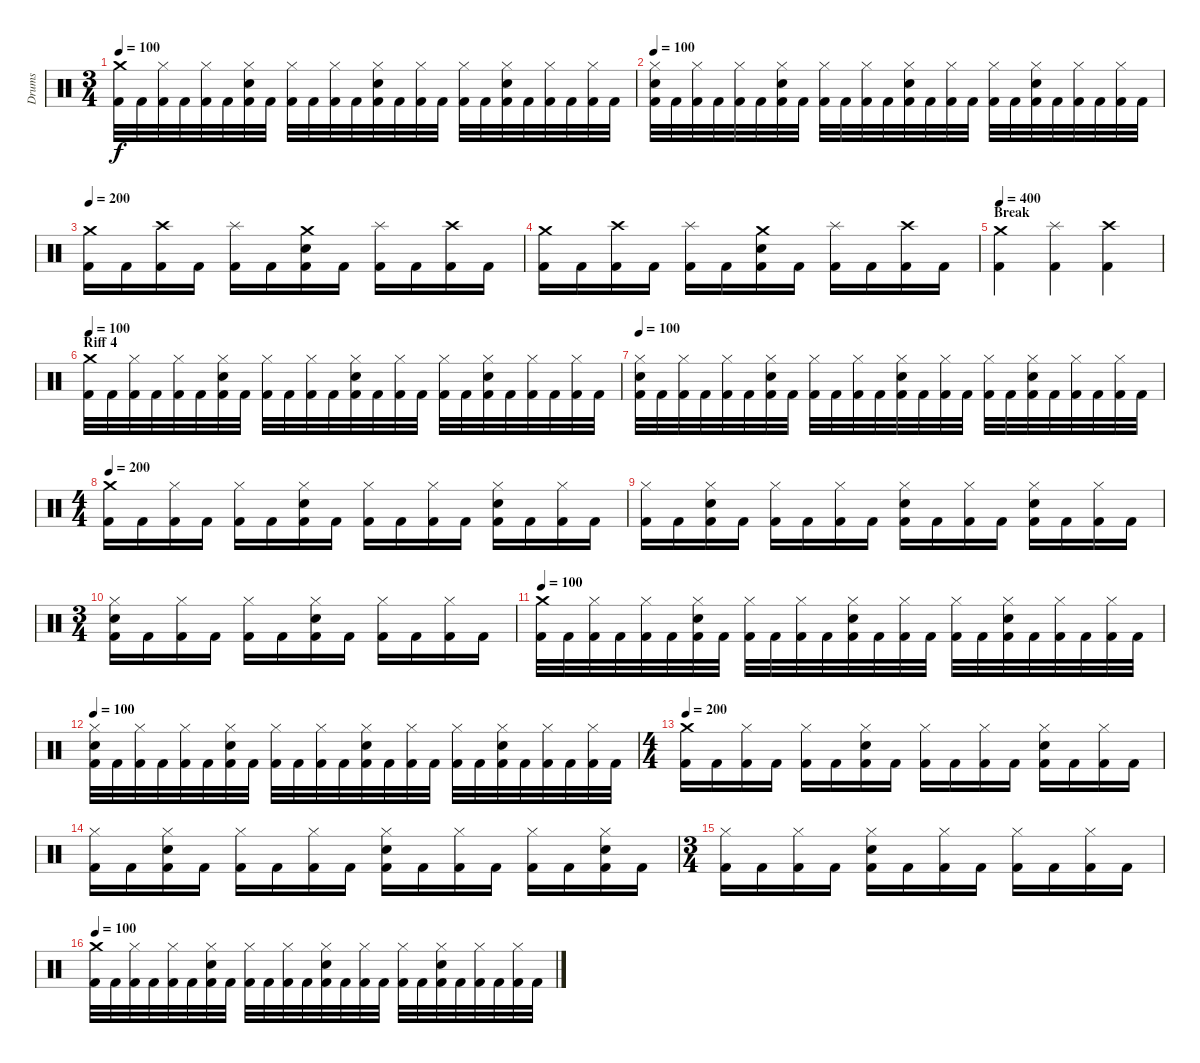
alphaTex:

\track ("Drums" "Drums") {instrument percussion}
\staff {score}
\articulation defaults
\ts (3 4)
\tempo 100
\clef neutral
\ks c
("Crash medium (hit)" "Kick (hit) 2").32{dy f} "Kick (hit) 2".32 ("Hi-Hat (closed)" "Kick (hit) 2").32 "Kick (hit) 2".32 ("Hi-Hat (closed)" "Kick (hit) 2").32 "Kick (hit) 2".32 ("Hi-Hat (closed)" "Electric Snare (hit)" "Kick (hit) 2").32 "Kick (hit) 2".32 ("Hi-Hat (closed)" "Kick (hit) 2").32 "Kick (hit) 2".32 ("Hi-Hat (closed)" "Kick (hit) 2").32 "Kick (hit) 2".32 ("Hi-Hat (closed)" "Electric Snare (hit)" "Kick (hit) 2").32 "Kick (hit) 2".32 ("Hi-Hat (closed)" "Kick (hit) 2").32 "Kick (hit) 2".32 ("Hi-Hat (closed)" "Kick (hit) 2").32 "Kick (hit) 2".32 ("Hi-Hat (closed)" "Electric Snare (hit)" "Kick (hit) 2").32 "Kick (hit) 2".32 ("Hi-Hat (closed)" "Kick (hit) 2").32 "Kick (hit) 2".32 ("Hi-Hat (closed)" "Kick (hit) 2").32 "Kick (hit) 2".32 |
\tempo 100
("Hi-Hat (closed)" "Electric Snare (hit)" "Kick (hit) 2").32 "Kick (hit) 2".32 ("Hi-Hat (closed)" "Kick (hit) 2").32 "Kick (hit) 2".32 ("Hi-Hat (closed)" "Kick (hit) 2").32 "Kick (hit) 2".32 ("Hi-Hat (closed)" "Electric Snare (hit)" "Kick (hit) 2").32 "Kick (hit) 2".32 ("Hi-Hat (closed)" "Kick (hit) 2").32 "Kick (hit) 2".32 ("Hi-Hat (closed)" "Kick (hit) 2").32 "Kick (hit) 2".32 ("Hi-Hat (closed)" "Electric Snare (hit)" "Kick (hit) 2").32 "Kick (hit) 2".32 ("Hi-Hat (closed)" "Kick (hit) 2").32 "Kick (hit) 2".32 ("Hi-Hat (closed)" "Kick (hit) 2").32 "Kick (hit) 2".32 ("Hi-Hat (closed)" "Electric Snare (hit)" "Kick (hit) 2").32 "Kick (hit) 2".32 ("Hi-Hat (closed)" "Kick (hit) 2").32 "Kick (hit) 2".32 ("Hi-Hat (closed)" "Kick (hit) 2").32 "Kick (hit) 2".32 |
\tempo 200
("Crash medium (hit)" "Kick (hit) 2").16 "Kick (hit) 2".16 ("Crash high (hit)" "Kick (hit) 2").16 "Kick (hit) 2".16 ("Splash (hit)" "Kick (hit) 2").16 "Kick (hit) 2".16 ("Crash medium (hit)" "Electric Snare (hit)" "Kick (hit) 2").16 "Kick (hit) 2".16 ("Splash (hit)" "Kick (hit) 2").16 "Kick (hit) 2".16 ("Crash high (hit)" "Kick (hit) 2").16 "Kick (hit) 2".16 |
("Crash medium (hit)" "Kick (hit) 2").16 "Kick (hit) 2".16 ("Crash high (hit)" "Kick (hit) 2").16 "Kick (hit) 2".16 ("Splash (hit)" "Kick (hit) 2").16 "Kick (hit) 2".16 ("Crash medium (hit)" "Electric Snare (hit)" "Kick (hit) 2").16 "Kick (hit) 2".16 ("Splash (hit)" "Kick (hit) 2").16 "Kick (hit) 2".16 ("Crash high (hit)" "Kick (hit) 2").16 "Kick (hit) 2".16 |
\section ("" "Break")
\tempo 400
("Crash medium (hit)" "Kick (hit) 2").4 ("Splash (hit)" "Kick (hit) 2").4 ("Crash high (hit)" "Kick (hit) 2").4 |
\section ("" "Riff 4")
\tempo 100
("Crash medium (hit)" "Kick (hit) 2").32 "Kick (hit) 2".32 ("Hi-Hat (closed)" "Kick (hit) 2").32 "Kick (hit) 2".32 ("Hi-Hat (closed)" "Kick (hit) 2").32 "Kick (hit) 2".32 ("Hi-Hat (closed)" "Electric Snare (hit)" "Kick (hit) 2").32 "Kick (hit) 2".32 ("Hi-Hat (closed)" "Kick (hit) 2").32 "Kick (hit) 2".32 ("Hi-Hat (closed)" "Kick (hit) 2").32 "Kick (hit) 2".32 ("Hi-Hat (closed)" "Electric Snare (hit)" "Kick (hit) 2").32 "Kick (hit) 2".32 ("Hi-Hat (closed)" "Kick (hit) 2").32 "Kick (hit) 2".32 ("Hi-Hat (closed)" "Kick (hit) 2").32 "Kick (hit) 2".32 ("Hi-Hat (closed)" "Electric Snare (hit)" "Kick (hit) 2").32 "Kick (hit) 2".32 ("Hi-Hat (closed)" "Kick (hit) 2").32 "Kick (hit) 2".32 ("Hi-Hat (closed)" "Kick (hit) 2").32 "Kick (hit) 2".32 |
\tempo 100
("Hi-Hat (closed)" "Electric Snare (hit)" "Kick (hit) 2").32 "Kick (hit) 2".32 ("Hi-Hat (closed)" "Kick (hit) 2").32 "Kick (hit) 2".32 ("Hi-Hat (closed)" "Kick (hit) 2").32 "Kick (hit) 2".32 ("Hi-Hat (closed)" "Electric Snare (hit)" "Kick (hit) 2").32 "Kick (hit) 2".32 ("Hi-Hat (closed)" "Kick (hit) 2").32 "Kick (hit) 2".32 ("Hi-Hat (closed)" "Kick (hit) 2").32 "Kick (hit) 2".32 ("Hi-Hat (closed)" "Electric Snare (hit)" "Kick (hit) 2").32 "Kick (hit) 2".32 ("Hi-Hat (closed)" "Kick (hit) 2").32 "Kick (hit) 2".32 ("Hi-Hat (closed)" "Kick (hit) 2").32 "Kick (hit) 2".32 ("Hi-Hat (closed)" "Electric Snare (hit)" "Kick (hit) 2").32 "Kick (hit) 2".32 ("Hi-Hat (closed)" "Kick (hit) 2").32 "Kick (hit) 2".32 ("Hi-Hat (closed)" "Kick (hit) 2").32 "Kick (hit) 2".32 |
\ts (4 4)
\tempo 200
("Crash medium (hit)" "Kick (hit) 2").16 "Kick (hit) 2".16 ("Hi-Hat (closed)" "Kick (hit) 2").16 "Kick (hit) 2".16 ("Hi-Hat (closed)" "Kick (hit) 2").16 "Kick (hit) 2".16 ("Hi-Hat (closed)" "Electric Snare (hit)" "Kick (hit) 2").16 "Kick (hit) 2".16 ("Hi-Hat (closed)" "Kick (hit) 2").16 "Kick (hit) 2".16 ("Hi-Hat (closed)" "Kick (hit) 2").16 "Kick (hit) 2".16 ("Hi-Hat (closed)" "Electric Snare (hit)" "Kick (hit) 2").16 "Kick (hit) 2".16 ("Hi-Hat (closed)" "Kick (hit) 2").16 "Kick (hit) 2".16 |
("Hi-Hat (closed)" "Kick (hit) 2").16 "Kick (hit) 2".16 ("Hi-Hat (closed)" "Electric Snare (hit)" "Kick (hit) 2").16 "Kick (hit) 2".16 ("Hi-Hat (closed)" "Kick (hit) 2").16 "Kick (hit) 2".16 ("Hi-Hat (closed)" "Kick (hit) 2").16 "Kick (hit) 2".16 ("Hi-Hat (closed)" "Electric Snare (hit)" "Kick (hit) 2").16 "Kick (hit) 2".16 ("Hi-Hat (closed)" "Kick (hit) 2").16 "Kick (hit) 2".16 ("Hi-Hat (closed)" "Electric Snare (hit)" "Kick (hit) 2").16 "Kick (hit) 2".16 ("Hi-Hat (closed)" "Kick (hit) 2").16 "Kick (hit) 2".16 |
\ts (3 4)
("Hi-Hat (closed)" "Electric Snare (hit)" "Kick (hit) 2").16 "Kick (hit) 2".16 ("Hi-Hat (closed)" "Kick (hit) 2").16 "Kick (hit) 2".16 ("Hi-Hat (closed)" "Kick (hit) 2").16 "Kick (hit) 2".16 ("Hi-Hat (closed)" "Electric Snare (hit)" "Kick (hit) 2").16 "Kick (hit) 2".16 ("Hi-Hat (closed)" "Kick (hit) 2").16 "Kick (hit) 2".16 ("Hi-Hat (closed)" "Kick (hit) 2").16 "Kick (hit) 2".16 |
\tempo 100
("Crash medium (hit)" "Kick (hit) 2").32 "Kick (hit) 2".32 ("Hi-Hat (closed)" "Kick (hit) 2").32 "Kick (hit) 2".32 ("Hi-Hat (closed)" "Kick (hit) 2").32 "Kick (hit) 2".32 ("Hi-Hat (closed)" "Electric Snare (hit)" "Kick (hit) 2").32 "Kick (hit) 2".32 ("Hi-Hat (closed)" "Kick (hit) 2").32 "Kick (hit) 2".32 ("Hi-Hat (closed)" "Kick (hit) 2").32 "Kick (hit) 2".32 ("Hi-Hat (closed)" "Electric Snare (hit)" "Kick (hit) 2").32 "Kick (hit) 2".32 ("Hi-Hat (closed)" "Kick (hit) 2").32 "Kick (hit) 2".32 ("Hi-Hat (closed)" "Kick (hit) 2").32 "Kick (hit) 2".32 ("Hi-Hat (closed)" "Electric Snare (hit)" "Kick (hit) 2").32 "Kick (hit) 2".32 ("Hi-Hat (closed)" "Kick (hit) 2").32 "Kick (hit) 2".32 ("Hi-Hat (closed)" "Kick (hit) 2").32 "Kick (hit) 2".32 |
\tempo 100
("Hi-Hat (closed)" "Electric Snare (hit)" "Kick (hit) 2").32 "Kick (hit) 2".32 ("Hi-Hat (closed)" "Kick (hit) 2").32 "Kick (hit) 2".32 ("Hi-Hat (closed)" "Kick (hit) 2").32 "Kick (hit) 2".32 ("Hi-Hat (closed)" "Electric Snare (hit)" "Kick (hit) 2").32 "Kick (hit) 2".32 ("Hi-Hat (closed)" "Kick (hit) 2").32 "Kick (hit) 2".32 ("Hi-Hat (closed)" "Kick (hit) 2").32 "Kick (hit) 2".32 ("Hi-Hat (closed)" "Electric Snare (hit)" "Kick (hit) 2").32 "Kick (hit) 2".32 ("Hi-Hat (closed)" "Kick (hit) 2").32 "Kick (hit) 2".32 ("Hi-Hat (closed)" "Kick (hit) 2").32 "Kick (hit) 2".32 ("Hi-Hat (closed)" "Electric Snare (hit)" "Kick (hit) 2").32 "Kick (hit) 2".32 ("Hi-Hat (closed)" "Kick (hit) 2").32 "Kick (hit) 2".32 ("Hi-Hat (closed)" "Kick (hit) 2").32 "Kick (hit) 2".32 |
\ts (4 4)
\tempo 200
("Crash medium (hit)" "Kick (hit) 2").16 "Kick (hit) 2".16 ("Hi-Hat (closed)" "Kick (hit) 2").16 "Kick (hit) 2".16 ("Hi-Hat (closed)" "Kick (hit) 2").16 "Kick (hit) 2".16 ("Hi-Hat (closed)" "Electric Snare (hit)" "Kick (hit) 2").16 "Kick (hit) 2".16 ("Hi-Hat (closed)" "Kick (hit) 2").16 "Kick (hit) 2".16 ("Hi-Hat (closed)" "Kick (hit) 2").16 "Kick (hit) 2".16 ("Hi-Hat (closed)" "Electric Snare (hit)" "Kick (hit) 2").16 "Kick (hit) 2".16 ("Hi-Hat (closed)" "Kick (hit) 2").16 "Kick (hit) 2".16 |
("Hi-Hat (closed)" "Kick (hit) 2").16 "Kick (hit) 2".16 ("Hi-Hat (closed)" "Electric Snare (hit)" "Kick (hit) 2").16 "Kick (hit) 2".16 ("Hi-Hat (closed)" "Kick (hit) 2").16 "Kick (hit) 2".16 ("Hi-Hat (closed)" "Kick (hit) 2").16 "Kick (hit) 2".16 ("Hi-Hat (closed)" "Electric Snare (hit)" "Kick (hit) 2").16 "Kick (hit) 2".16 ("Hi-Hat (closed)" "Kick (hit) 2").16 "Kick (hit) 2".16 ("Hi-Hat (closed)" "Kick (hit) 2").16 "Kick (hit) 2".16 ("Hi-Hat (closed)" "Electric Snare (hit)" "Kick (hit) 2").16 "Kick (hit) 2".16 |
\ts (3 4)
("Hi-Hat (closed)" "Kick (hit) 2").16 "Kick (hit) 2".16 ("Hi-Hat (closed)" "Kick (hit) 2").16 "Kick (hit) 2".16 ("Hi-Hat (closed)" "Electric Snare (hit)" "Kick (hit) 2").16 "Kick (hit) 2".16 ("Hi-Hat (closed)" "Kick (hit) 2").16 "Kick (hit) 2".16 ("Hi-Hat (closed)" "Kick (hit) 2").16 "Kick (hit) 2".16 ("Hi-Hat (closed)" "Kick (hit) 2").16 "Kick (hit) 2".16 |
\tempo 100
("Crash medium (hit)" "Kick (hit) 2").32 "Kick (hit) 2".32 ("Hi-Hat (closed)" "Kick (hit) 2").32 "Kick (hit) 2".32 ("Hi-Hat (closed)" "Kick (hit) 2").32 "Kick (hit) 2".32 ("Hi-Hat (closed)" "Electric Snare (hit)" "Kick (hit) 2").32 "Kick (hit) 2".32 ("Hi-Hat (closed)" "Kick (hit) 2").32 "Kick (hit) 2".32 ("Hi-Hat (closed)" "Kick (hit) 2").32 "Kick (hit) 2".32 ("Hi-Hat (closed)" "Electric Snare (hit)" "Kick (hit) 2").32 "Kick (hit) 2".32 ("Hi-Hat (closed)" "Kick (hit) 2").32 "Kick (hit) 2".32 ("Hi-Hat (closed)" "Kick (hit) 2").32 "Kick (hit) 2".32 ("Hi-Hat (closed)" "Electric Snare (hit)" "Kick (hit) 2").32 "Kick (hit) 2".32 ("Hi-Hat (closed)" "Kick (hit) 2").32 "Kick (hit) 2".32 ("Hi-Hat (closed)" "Kick (hit) 2").32 "Kick (hit) 2".32
